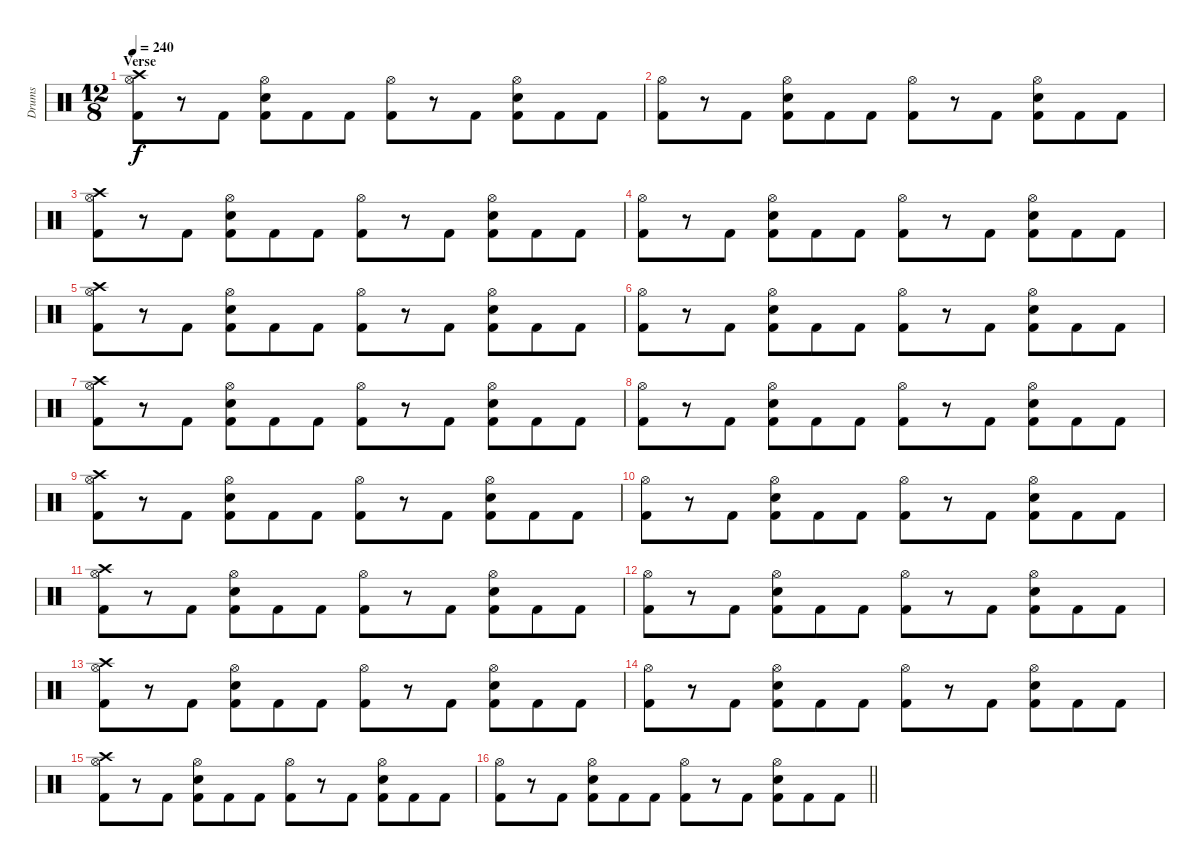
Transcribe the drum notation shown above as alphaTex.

\track ("Drums" "Drums") {instrument percussion}
\staff {score}
\articulation defaults
\ts (12 8)
\section ("" "Verse")
\tempo 240
\clef neutral
\ks c
("Crash high (hit)" "Hi-Hat (open)" "Kick (hit) 2").8{dy f} r.8 "Kick (hit) 2".8 ("Hi-Hat (open)" "Snare (hit) 2" "Kick (hit) 2").8 "Kick (hit) 2".8 "Kick (hit) 2".8 ("Hi-Hat (open)" "Kick (hit) 2").8 r.8 "Kick (hit) 2".8 ("Hi-Hat (open)" "Snare (hit) 2" "Kick (hit) 2").8 "Kick (hit) 2".8 "Kick (hit) 2".8 |
("Hi-Hat (open)" "Kick (hit) 2").8 r.8 "Kick (hit) 2".8 ("Hi-Hat (open)" "Snare (hit) 2" "Kick (hit) 2").8 "Kick (hit) 2".8 "Kick (hit) 2".8 ("Hi-Hat (open)" "Kick (hit) 2").8 r.8 "Kick (hit) 2".8 ("Hi-Hat (open)" "Snare (hit) 2" "Kick (hit) 2").8 "Kick (hit) 2".8 "Kick (hit) 2".8 |
("Crash high (hit)" "Hi-Hat (open)" "Kick (hit) 2").8 r.8 "Kick (hit) 2".8 ("Hi-Hat (open)" "Snare (hit) 2" "Kick (hit) 2").8 "Kick (hit) 2".8 "Kick (hit) 2".8 ("Hi-Hat (open)" "Kick (hit) 2").8 r.8 "Kick (hit) 2".8 ("Hi-Hat (open)" "Snare (hit) 2" "Kick (hit) 2").8 "Kick (hit) 2".8 "Kick (hit) 2".8 |
("Hi-Hat (open)" "Kick (hit) 2").8 r.8 "Kick (hit) 2".8 ("Hi-Hat (open)" "Snare (hit) 2" "Kick (hit) 2").8 "Kick (hit) 2".8 "Kick (hit) 2".8 ("Hi-Hat (open)" "Kick (hit) 2").8 r.8 "Kick (hit) 2".8 ("Hi-Hat (open)" "Snare (hit) 2" "Kick (hit) 2").8 "Kick (hit) 2".8 "Kick (hit) 2".8 |
("Crash high (hit)" "Hi-Hat (open)" "Kick (hit) 2").8 r.8 "Kick (hit) 2".8 ("Hi-Hat (open)" "Snare (hit) 2" "Kick (hit) 2").8 "Kick (hit) 2".8 "Kick (hit) 2".8 ("Hi-Hat (open)" "Kick (hit) 2").8 r.8 "Kick (hit) 2".8 ("Hi-Hat (open)" "Snare (hit) 2" "Kick (hit) 2").8 "Kick (hit) 2".8 "Kick (hit) 2".8 |
("Hi-Hat (open)" "Kick (hit) 2").8 r.8 "Kick (hit) 2".8 ("Hi-Hat (open)" "Snare (hit) 2" "Kick (hit) 2").8 "Kick (hit) 2".8 "Kick (hit) 2".8 ("Hi-Hat (open)" "Kick (hit) 2").8 r.8 "Kick (hit) 2".8 ("Hi-Hat (open)" "Snare (hit) 2" "Kick (hit) 2").8 "Kick (hit) 2".8 "Kick (hit) 2".8 |
("Crash high (hit)" "Hi-Hat (open)" "Kick (hit) 2").8 r.8 "Kick (hit) 2".8 ("Hi-Hat (open)" "Snare (hit) 2" "Kick (hit) 2").8 "Kick (hit) 2".8 "Kick (hit) 2".8 ("Hi-Hat (open)" "Kick (hit) 2").8 r.8 "Kick (hit) 2".8 ("Hi-Hat (open)" "Snare (hit) 2" "Kick (hit) 2").8 "Kick (hit) 2".8 "Kick (hit) 2".8 |
("Hi-Hat (open)" "Kick (hit) 2").8 r.8 "Kick (hit) 2".8 ("Hi-Hat (open)" "Snare (hit) 2" "Kick (hit) 2").8 "Kick (hit) 2".8 "Kick (hit) 2".8 ("Hi-Hat (open)" "Kick (hit) 2").8 r.8 "Kick (hit) 2".8 ("Hi-Hat (open)" "Snare (hit) 2" "Kick (hit) 2").8 "Kick (hit) 2".8 "Kick (hit) 2".8 |
("Crash high (hit)" "Hi-Hat (open)" "Kick (hit) 2").8 r.8 "Kick (hit) 2".8 ("Hi-Hat (open)" "Snare (hit) 2" "Kick (hit) 2").8 "Kick (hit) 2".8 "Kick (hit) 2".8 ("Hi-Hat (open)" "Kick (hit) 2").8 r.8 "Kick (hit) 2".8 ("Hi-Hat (open)" "Snare (hit) 2" "Kick (hit) 2").8 "Kick (hit) 2".8 "Kick (hit) 2".8 |
("Hi-Hat (open)" "Kick (hit) 2").8 r.8 "Kick (hit) 2".8 ("Hi-Hat (open)" "Snare (hit) 2" "Kick (hit) 2").8 "Kick (hit) 2".8 "Kick (hit) 2".8 ("Hi-Hat (open)" "Kick (hit) 2").8 r.8 "Kick (hit) 2".8 ("Hi-Hat (open)" "Snare (hit) 2" "Kick (hit) 2").8 "Kick (hit) 2".8 "Kick (hit) 2".8 |
("Crash high (hit)" "Hi-Hat (open)" "Kick (hit) 2").8 r.8 "Kick (hit) 2".8 ("Hi-Hat (open)" "Snare (hit) 2" "Kick (hit) 2").8 "Kick (hit) 2".8 "Kick (hit) 2".8 ("Hi-Hat (open)" "Kick (hit) 2").8 r.8 "Kick (hit) 2".8 ("Hi-Hat (open)" "Snare (hit) 2" "Kick (hit) 2").8 "Kick (hit) 2".8 "Kick (hit) 2".8 |
("Hi-Hat (open)" "Kick (hit) 2").8 r.8 "Kick (hit) 2".8 ("Hi-Hat (open)" "Snare (hit) 2" "Kick (hit) 2").8 "Kick (hit) 2".8 "Kick (hit) 2".8 ("Hi-Hat (open)" "Kick (hit) 2").8 r.8 "Kick (hit) 2".8 ("Hi-Hat (open)" "Snare (hit) 2" "Kick (hit) 2").8 "Kick (hit) 2".8 "Kick (hit) 2".8 |
("Crash high (hit)" "Hi-Hat (open)" "Kick (hit) 2").8 r.8 "Kick (hit) 2".8 ("Hi-Hat (open)" "Snare (hit) 2" "Kick (hit) 2").8 "Kick (hit) 2".8 "Kick (hit) 2".8 ("Hi-Hat (open)" "Kick (hit) 2").8 r.8 "Kick (hit) 2".8 ("Hi-Hat (open)" "Snare (hit) 2" "Kick (hit) 2").8 "Kick (hit) 2".8 "Kick (hit) 2".8 |
("Hi-Hat (open)" "Kick (hit) 2").8 r.8 "Kick (hit) 2".8 ("Hi-Hat (open)" "Snare (hit) 2" "Kick (hit) 2").8 "Kick (hit) 2".8 "Kick (hit) 2".8 ("Hi-Hat (open)" "Kick (hit) 2").8 r.8 "Kick (hit) 2".8 ("Hi-Hat (open)" "Snare (hit) 2" "Kick (hit) 2").8 "Kick (hit) 2".8 "Kick (hit) 2".8 |
("Crash high (hit)" "Hi-Hat (open)" "Kick (hit) 2").8 r.8 "Kick (hit) 2".8 ("Hi-Hat (open)" "Snare (hit) 2" "Kick (hit) 2").8 "Kick (hit) 2".8 "Kick (hit) 2".8 ("Hi-Hat (open)" "Kick (hit) 2").8 r.8 "Kick (hit) 2".8 ("Hi-Hat (open)" "Snare (hit) 2" "Kick (hit) 2").8 "Kick (hit) 2".8 "Kick (hit) 2".8 |
\barLineRight lightlight
("Hi-Hat (open)" "Kick (hit) 2").8 r.8 "Kick (hit) 2".8 ("Hi-Hat (open)" "Snare (hit) 2" "Kick (hit) 2").8 "Kick (hit) 2".8 "Kick (hit) 2".8 ("Hi-Hat (open)" "Kick (hit) 2").8 r.8 "Kick (hit) 2".8 ("Hi-Hat (open)" "Snare (hit) 2" "Kick (hit) 2").8 "Kick (hit) 2".8 "Kick (hit) 2".8
